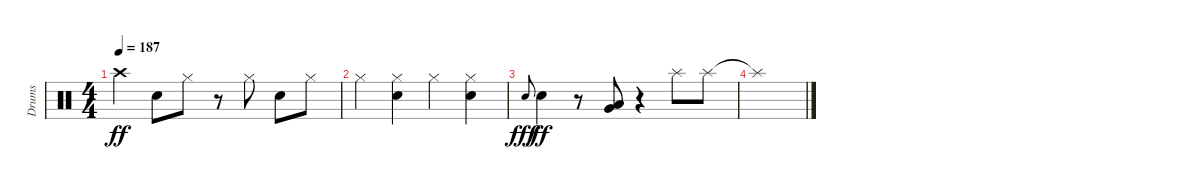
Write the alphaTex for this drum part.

\track ("Drums" "Drums") {instrument percussion}
\staff {score}
\articulation defaults
\ts (4 4)
\tempo 187
\clef neutral
\ks c "Crash high (hit)".4{dy ff} "Snare (hit) 2".8 "Hi-Hat (closed)".8
r.8 "Hi-Hat (closed)".8 "Snare (hit) 2".8 "Hi-Hat (closed)".8 |
"Hi-Hat (closed)".4 ("Hi-Hat (closed)" "Snare (hit) 2").4 "Hi-Hat (closed)".4 ("Hi-Hat (closed)" "Snare (hit) 2").4 |
"Snare (hit) 2".8{gr onbeat dy fff} "Snare (hit) 2".4{dy ff} r.8 ("Very Low Tom (hit)" "Low Tom (hit)").8 r.4 "Splash (hit)".8 "Splash (hit)".8 |
"Splash (hit)"{t}.1
